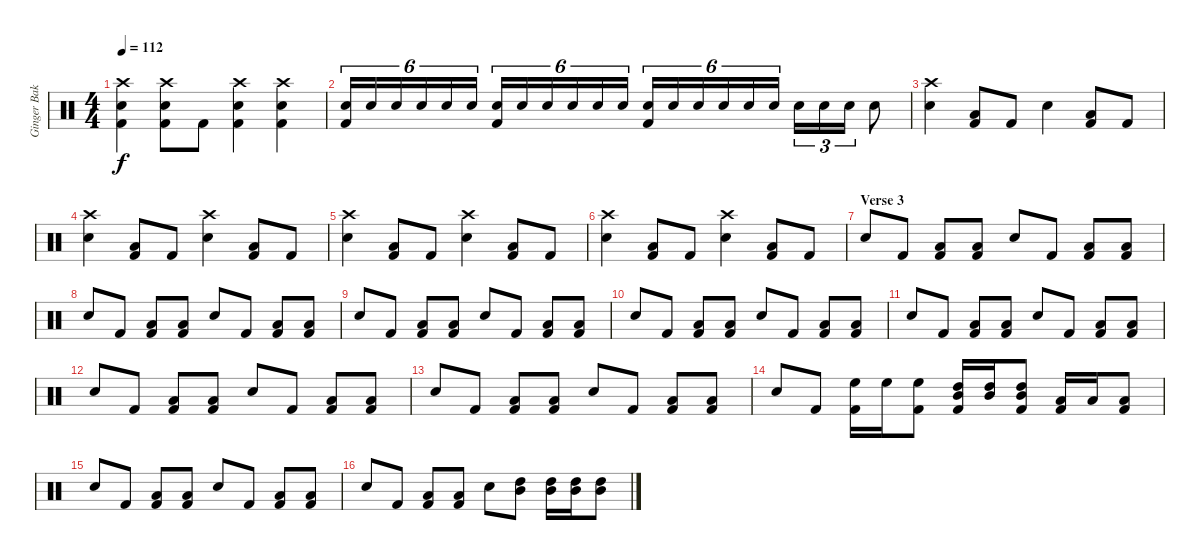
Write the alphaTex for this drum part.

\track ("Ginger Baker" "Ginger Bak") {instrument percussion}
\staff {score}
\articulation defaults
\ts (4 4)
\tempo 112
\clef neutral
\ks c
("Crash high (hit)" "Snare (hit) 2" "Kick (hit) 2").4{dy f} ("Crash high (hit)" "Snare (hit) 2" "Kick (hit) 2").8 "Kick (hit) 2".8 ("Crash high (hit)" "Snare (hit) 2" "Kick (hit) 2").4 ("Crash high (hit)" "Snare (hit) 2" "Kick (hit) 2").4 |
("Snare (hit) 2" "Kick (hit) 2").16{tu (6 4)} "Snare (hit) 2".16{tu (6 4)} "Snare (hit) 2".16{tu (6 4)} "Snare (hit) 2".16{tu (6 4)} "Snare (hit) 2".16{tu (6 4)} "Snare (hit) 2".16{tu (6 4)} ("Snare (hit) 2" "Kick (hit) 2").16{tu (6 4)} "Snare (hit) 2".16{tu (6 4)} "Snare (hit) 2".16{tu (6 4)} "Snare (hit) 2".16{tu (6 4)} "Snare (hit) 2".16{tu (6 4)} "Snare (hit) 2".16{tu (6 4)} ("Snare (hit) 2" "Kick (hit) 2").16{tu (6 4)} "Snare (hit) 2".16{tu (6 4)} "Snare (hit) 2".16{tu (6 4)} "Snare (hit) 2".16{tu (6 4)} "Snare (hit) 2".16{tu (6 4)} "Snare (hit) 2".16{tu (6 4)} "Snare (hit) 2".16{tu (3 2)} "Snare (hit) 2".16{tu (3 2)} "Snare (hit) 2".16{tu (3 2)} "Snare (hit) 2".8 |
("Crash high (hit)" "Snare (hit) 2").4 ("Low Tom (hit)" "Kick (hit) 2").8 "Kick (hit) 2".8 "Snare (hit) 2".4 ("Low Tom (hit)" "Kick (hit) 2").8 "Kick (hit) 2".8 |
("Crash high (hit)" "Snare (hit) 2").4 ("Low Tom (hit)" "Kick (hit) 2").8 "Kick (hit) 2".8 ("Crash high (hit)" "Snare (hit) 2").4 ("Low Tom (hit)" "Kick (hit) 2").8 "Kick (hit) 2".8 |
("Crash high (hit)" "Snare (hit) 2").4 ("Low Tom (hit)" "Kick (hit) 2").8 "Kick (hit) 2".8 ("Crash high (hit)" "Snare (hit) 2").4 ("Low Tom (hit)" "Kick (hit) 2").8 "Kick (hit) 2".8 |
("Crash high (hit)" "Snare (hit) 2").4 ("Low Tom (hit)" "Kick (hit) 2").8 "Kick (hit) 2".8 ("Crash high (hit)" "Snare (hit) 2").4 ("Low Tom (hit)" "Kick (hit) 2").8 "Kick (hit) 2".8 |
\section ("" "Verse 3")
"Snare (hit) 2".8 "Kick (hit) 2".8 ("Low Tom (hit)" "Kick (hit) 2").8 ("Low Tom (hit)" "Kick (hit) 2").8 "Snare (hit) 2".8 "Kick (hit) 2".8 ("Low Tom (hit)" "Kick (hit) 2").8 ("Low Tom (hit)" "Kick (hit) 2").8 |
"Snare (hit) 2".8 "Kick (hit) 2".8 ("Low Tom (hit)" "Kick (hit) 2").8 ("Low Tom (hit)" "Kick (hit) 2").8 "Snare (hit) 2".8 "Kick (hit) 2".8 ("Low Tom (hit)" "Kick (hit) 2").8 ("Low Tom (hit)" "Kick (hit) 2").8 |
"Snare (hit) 2".8 "Kick (hit) 2".8 ("Low Tom (hit)" "Kick (hit) 2").8 ("Low Tom (hit)" "Kick (hit) 2").8 "Snare (hit) 2".8 "Kick (hit) 2".8 ("Low Tom (hit)" "Kick (hit) 2").8 ("Low Tom (hit)" "Kick (hit) 2").8 |
"Snare (hit) 2".8 "Kick (hit) 2".8 ("Low Tom (hit)" "Kick (hit) 2").8 ("Low Tom (hit)" "Kick (hit) 2").8 "Snare (hit) 2".8 "Kick (hit) 2".8 ("Low Tom (hit)" "Kick (hit) 2").8 ("Low Tom (hit)" "Kick (hit) 2").8 |
"Snare (hit) 2".8 "Kick (hit) 2".8 ("Low Tom (hit)" "Kick (hit) 2").8 ("Low Tom (hit)" "Kick (hit) 2").8 "Snare (hit) 2".8 "Kick (hit) 2".8 ("Low Tom (hit)" "Kick (hit) 2").8 ("Low Tom (hit)" "Kick (hit) 2").8 |
"Snare (hit) 2".8 "Kick (hit) 2".8 ("Low Tom (hit)" "Kick (hit) 2").8 ("Low Tom (hit)" "Kick (hit) 2").8 "Snare (hit) 2".8 "Kick (hit) 2".8 ("Low Tom (hit)" "Kick (hit) 2").8 ("Low Tom (hit)" "Kick (hit) 2").8 |
"Snare (hit) 2".8 "Kick (hit) 2".8 ("Low Tom (hit)" "Kick (hit) 2").8 ("Low Tom (hit)" "Kick (hit) 2").8 "Snare (hit) 2".8 "Kick (hit) 2".8 ("Low Tom (hit)" "Kick (hit) 2").8 ("Low Tom (hit)" "Kick (hit) 2").8 |
"Snare (hit) 2".8 "Kick (hit) 2".8 ("High Floor Tom (hit)" "Kick (hit) 2").16 "High Floor Tom (hit)".16 ("High Floor Tom (hit)" "Kick (hit) 2").8 ("High Tom (hit)" "Mid Tom (hit)" "Kick (hit) 2").16 ("High Tom (hit)" "Mid Tom (hit)").16 ("High Tom (hit)" "Mid Tom (hit)" "Kick (hit) 2").8 ("Low Tom (hit)" "Kick (hit) 2").16 "Low Tom (hit)".16 ("Low Tom (hit)" "Kick (hit) 2").8 |
"Snare (hit) 2".8 "Kick (hit) 2".8 ("Low Tom (hit)" "Kick (hit) 2").8 ("Low Tom (hit)" "Kick (hit) 2").8 "Snare (hit) 2".8 "Kick (hit) 2".8 ("Low Tom (hit)" "Kick (hit) 2").8 ("Low Tom (hit)" "Kick (hit) 2").8 |
"Snare (hit) 2".8 "Kick (hit) 2".8 ("Low Tom (hit)" "Kick (hit) 2").8 ("Low Tom (hit)" "Kick (hit) 2").8 "Snare (hit) 2".8 ("High Tom (hit)" "Mid Tom (hit)").8 ("High Tom (hit)" "Mid Tom (hit)").16 ("High Tom (hit)" "Mid Tom (hit)").16 ("High Tom (hit)" "Mid Tom (hit)").8
